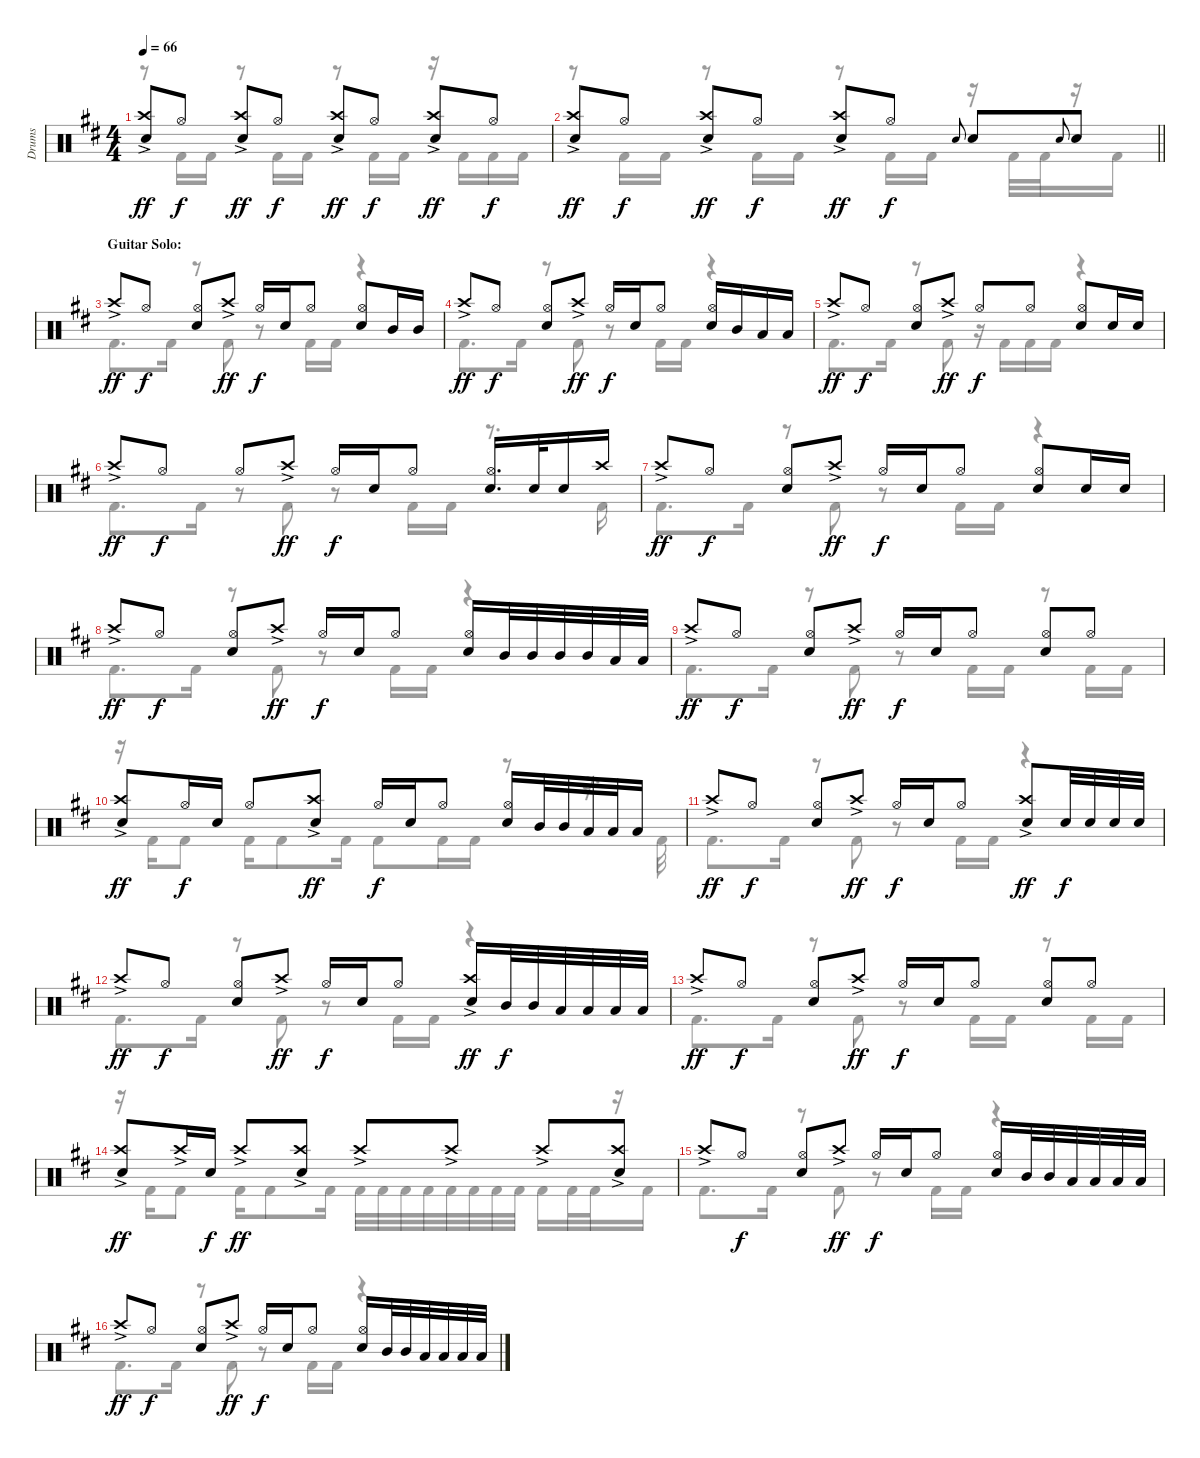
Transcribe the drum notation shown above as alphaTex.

\track ("Drums" "Drums") {instrument percussion}
\staff {score}
\articulation defaults
\voice
\ts (4 4)
\tempo 66
\clef neutral
\ks d
("Crash high (hit)"{ac} "Electric Snare (hit)").8{dy ff} "Hi-Hat (open)".8{dy f} ("Crash high (hit)"{ac} "Electric Snare (hit)").8{dy ff} "Hi-Hat (open)".8{dy f} ("Crash high (hit)"{ac} "Electric Snare (hit)").8{dy ff} "Hi-Hat (open)".8{dy f} ("Crash high (hit)"{ac} "Electric Snare (hit)").8{dy ff} "Hi-Hat (open)".8{dy f} |
\barLineRight lightlight
("Crash high (hit)"{ac} "Electric Snare (hit)").8{dy ff} "Hi-Hat (open)".8{dy f} ("Crash high (hit)"{ac} "Electric Snare (hit)").8{dy ff} "Hi-Hat (open)".8{dy f} ("Crash high (hit)"{ac} "Electric Snare (hit)").8{dy ff} "Hi-Hat (open)".8{dy f} "Electric Snare (hit)".8{gr onbeat} "Electric Snare (hit)".8 "Electric Snare (hit)".8{gr onbeat} "Electric Snare (hit)".8 |
\section ("" "Guitar Solo:")
"Crash high (hit)"{ac}.8{dy ff} "Hi-Hat (open)".8{dy f} ("Hi-Hat (open)" "Electric Snare (hit)").8 "Crash high (hit)"{ac}.8{dy ff} "Hi-Hat (open)".16{dy f} "Electric Snare (hit)".16 "Hi-Hat (open)".8 ("Hi-Hat (open)" "Electric Snare (hit)").8 "Mid Tom (hit)".16 "Mid Tom (hit)".16 |
"Crash high (hit)"{ac}.8{dy ff} "Hi-Hat (open)".8{dy f} ("Hi-Hat (open)" "Electric Snare (hit)").8 "Crash high (hit)"{ac}.8{dy ff} "Hi-Hat (open)".16{dy f} "Electric Snare (hit)".16 "Hi-Hat (open)".8 ("Hi-Hat (open)" "Electric Snare (hit)").16 "Mid Tom (hit)".16 "Low Tom (hit)".16 "Low Tom (hit)".16 |
"Crash high (hit)"{ac}.8{dy ff} "Hi-Hat (open)".8{dy f} ("Hi-Hat (open)" "Electric Snare (hit)").8 "Crash high (hit)"{ac}.8{dy ff} "Hi-Hat (open)".8{dy f} "Hi-Hat (open)".8 ("Hi-Hat (open)" "Electric Snare (hit)").8 "Electric Snare (hit)".16 "Electric Snare (hit)".16 |
"Crash high (hit)"{ac}.8{dy ff} "Hi-Hat (open)".8{dy f} "Hi-Hat (open)".8 "Crash high (hit)"{ac}.8{dy ff} "Hi-Hat (open)".16{dy f} "Electric Snare (hit)".16 "Hi-Hat (open)".8 ("Hi-Hat (open)" "Electric Snare (hit)").16{d} "Electric Snare (hit)".32 "Electric Snare (hit)".16 "Crash high (hit)".16 |
"Crash high (hit)"{ac}.8{dy ff} "Hi-Hat (open)".8{dy f} ("Hi-Hat (open)" "Electric Snare (hit)").8 "Crash high (hit)"{ac}.8{dy ff} "Hi-Hat (open)".16{dy f} "Electric Snare (hit)".16 "Hi-Hat (open)".8 ("Hi-Hat (open)" "Electric Snare (hit)").8 "Electric Snare (hit)".16 "Electric Snare (hit)".16 |
"Crash high (hit)"{ac}.8{dy ff} "Hi-Hat (open)".8{dy f} ("Hi-Hat (open)" "Electric Snare (hit)").8 "Crash high (hit)"{ac}.8{dy ff} "Hi-Hat (open)".16{dy f} "Electric Snare (hit)".16 "Hi-Hat (open)".8 ("Hi-Hat (open)" "Electric Snare (hit)").16 "Mid Tom (hit)".32 "Mid Tom (hit)".32 "Mid Tom (hit)".32 "Mid Tom (hit)".32 "Low Tom (hit)".32 "Low Tom (hit)".32 |
"Crash high (hit)"{ac}.8{dy ff} "Hi-Hat (open)".8{dy f} ("Hi-Hat (open)" "Electric Snare (hit)").8 "Crash high (hit)"{ac}.8{dy ff} "Hi-Hat (open)".16{dy f} "Electric Snare (hit)".16 "Hi-Hat (open)".8 ("Hi-Hat (open)" "Electric Snare (hit)").8 "Hi-Hat (open)".8 |
("Crash high (hit)"{ac} "Electric Snare (hit)").8{dy ff} "Hi-Hat (open)".16{dy f} "Electric Snare (hit)".16 "Hi-Hat (open)".8 ("Crash high (hit)"{ac} "Electric Snare (hit)").8{dy ff} "Hi-Hat (open)".16{dy f} "Electric Snare (hit)".16 "Hi-Hat (open)".8 ("Hi-Hat (open)" "Electric Snare (hit)").16 "Mid Tom (hit)".32 "Mid Tom (hit)".32 "Low Tom (hit)".32 "Low Tom (hit)".32 "Low Tom (hit)".16 |
"Crash high (hit)"{ac}.8{dy ff} "Hi-Hat (open)".8{dy f} ("Hi-Hat (open)" "Electric Snare (hit)").8 "Crash high (hit)"{ac}.8{dy ff} "Hi-Hat (open)".16{dy f} "Electric Snare (hit)".16 "Hi-Hat (open)".8 ("Crash high (hit)"{ac} "Electric Snare (hit)").8{dy ff} "Electric Snare (hit)".32{dy f} "Electric Snare (hit)".32 "Electric Snare (hit)".32 "Electric Snare (hit)".32 |
"Crash high (hit)"{ac}.8{dy ff} "Hi-Hat (open)".8{dy f} ("Hi-Hat (open)" "Electric Snare (hit)").8 "Crash high (hit)"{ac}.8{dy ff} "Hi-Hat (open)".16{dy f} "Electric Snare (hit)".16 "Hi-Hat (open)".8 ("Crash high (hit)"{ac} "Electric Snare (hit)").16{dy ff} "Mid Tom (hit)".32{dy f} "Mid Tom (hit)".32 "Low Tom (hit)".32 "Low Tom (hit)".32 "Low Tom (hit)".32 "Low Tom (hit)".32 |
"Crash high (hit)"{ac}.8{dy ff} "Hi-Hat (open)".8{dy f} ("Hi-Hat (open)" "Electric Snare (hit)").8 "Crash high (hit)"{ac}.8{dy ff} "Hi-Hat (open)".16{dy f} "Electric Snare (hit)".16 "Hi-Hat (open)".8 ("Hi-Hat (open)" "Electric Snare (hit)").8 "Hi-Hat (open)".8 |
("Crash high (hit)"{ac} "Electric Snare (hit)").8{dy ff} "Crash high (hit)"{ac}.16 "Electric Snare (hit)".16{dy f} "Crash high (hit)"{ac}.8{dy ff} ("Crash high (hit)"{ac} "Electric Snare (hit)").8 "Crash high (hit)"{ac}.8 "Crash high (hit)"{ac}.8 "Crash high (hit)"{ac}.8 ("Crash high (hit)"{ac} "Electric Snare (hit)").8 |
"Crash high (hit)"{ac}.8 "Hi-Hat (open)".8{dy f} ("Hi-Hat (open)" "Electric Snare (hit)").8 "Crash high (hit)"{ac}.8{dy ff} "Hi-Hat (open)".16{dy f} "Electric Snare (hit)".16 "Hi-Hat (open)".8 ("Hi-Hat (open)" "Electric Snare (hit)").16 "Mid Tom (hit)".32 "Mid Tom (hit)".32 "Low Tom (hit)".32 "Low Tom (hit)".32 "Low Tom (hit)".32 "Low Tom (hit)".32 |
"Crash high (hit)"{ac}.8{dy ff} "Hi-Hat (open)".8{dy f} ("Hi-Hat (open)" "Electric Snare (hit)").8 "Crash high (hit)"{ac}.8{dy ff} "Hi-Hat (open)".16{dy f} "Electric Snare (hit)".16 "Hi-Hat (open)".8 ("Hi-Hat (open)" "Electric Snare (hit)").16 "Mid Tom (hit)".32 "Mid Tom (hit)".32 "Low Tom (hit)".32 "Low Tom (hit)".32 "Low Tom (hit)".32 "Low Tom (hit)".32
\voice
\clef neutral
\ottava regular
\simile none
\ks d
r.8{dy f} "Kick (hit) 2".16 "Kick (hit) 2".16 r.8 "Kick (hit) 2".16 "Kick (hit) 2".16 r.8 "Kick (hit) 2".16 "Kick (hit) 2".16 r.16 "Kick (hit) 2".16 "Kick (hit) 2".16 "Kick (hit) 2".16 |
\barLineRight lightlight
r.8 "Kick (hit) 2".16 "Kick (hit) 2".16 r.8 "Kick (hit) 2".16 "Kick (hit) 2".16 r.8 "Kick (hit) 2".16 "Kick (hit) 2".16 r.16 "Kick (hit) 2".32 "Kick (hit) 2".32 r.16 "Kick (hit) 2".16 |
"Kick (hit) 2".8{d} "Kick (hit) 2".16 r.8 "Kick (hit) 2".8 r.8 "Kick (hit) 2".16 "Kick (hit) 2".16 r.4 |
"Kick (hit) 2".8{d} "Kick (hit) 2".16 r.8 "Kick (hit) 2".8 r.8 "Kick (hit) 2".16 "Kick (hit) 2".16 r.4 |
"Kick (hit) 2".8{d} "Kick (hit) 2".16 r.8 "Kick (hit) 2".8 r.16 "Kick (hit) 2".16 "Kick (hit) 2".16 "Kick (hit) 2".16 r.4 |
"Kick (hit) 2".8{d} "Kick (hit) 2".16 r.8 "Kick (hit) 2".8 r.8 "Kick (hit) 2".16 "Kick (hit) 2".16 r.8{d} "Kick (hit) 2".16 |
"Kick (hit) 2".8{d} "Kick (hit) 2".16 r.8 "Kick (hit) 2".8 r.8 "Kick (hit) 2".16 "Kick (hit) 2".16 r.4 |
"Kick (hit) 2".8{d} "Kick (hit) 2".16 r.8 "Kick (hit) 2".8 r.8 "Kick (hit) 2".16 "Kick (hit) 2".16 r.4 |
"Kick (hit) 2".8{d} "Kick (hit) 2".16 r.8 "Kick (hit) 2".8 r.8 "Kick (hit) 2".16 "Kick (hit) 2".16 r.8 "Kick (hit) 2".16 "Kick (hit) 2".16 |
r.16 "Kick (hit) 2".16 "Kick (hit) 2".8 "Kick (hit) 2".16 "Kick (hit) 2".8 "Kick (hit) 2".16 "Kick (hit) 2".8 "Kick (hit) 2".16 "Kick (hit) 2".16 r.8 r.16{d} "Kick (hit) 2".32 |
"Kick (hit) 2".8{d} "Kick (hit) 2".16 r.8 "Kick (hit) 2".8 r.8 "Kick (hit) 2".16 "Kick (hit) 2".16 r.4 |
"Kick (hit) 2".8{d} "Kick (hit) 2".16 r.8 "Kick (hit) 2".8 r.8 "Kick (hit) 2".16 "Kick (hit) 2".16 r.4 |
"Kick (hit) 2".8{d} "Kick (hit) 2".16 r.8 "Kick (hit) 2".8 r.8 "Kick (hit) 2".16 "Kick (hit) 2".16 r.8 "Kick (hit) 2".16 "Kick (hit) 2".16 |
r.16 "Kick (hit) 2".16 "Kick (hit) 2".8 "Kick (hit) 2".16 "Kick (hit) 2".8 "Kick (hit) 2".16 "Kick (hit) 2".32 "Kick (hit) 2".32 "Kick (hit) 2".32 "Kick (hit) 2".32 "Kick (hit) 2".32 "Kick (hit) 2".32 "Kick (hit) 2".32 "Kick (hit) 2".32 "Kick (hit) 2".16 "Kick (hit) 2".32 "Kick (hit) 2".32 r.16 "Kick (hit) 2".16 |
"Kick (hit) 2".8{d} "Kick (hit) 2".16 r.8 "Kick (hit) 2".8 r.8 "Kick (hit) 2".16 "Kick (hit) 2".16 r.4 |
"Kick (hit) 2".8{d} "Kick (hit) 2".16 r.8 "Kick (hit) 2".8 r.8 "Kick (hit) 2".16 "Kick (hit) 2".16 r.4
